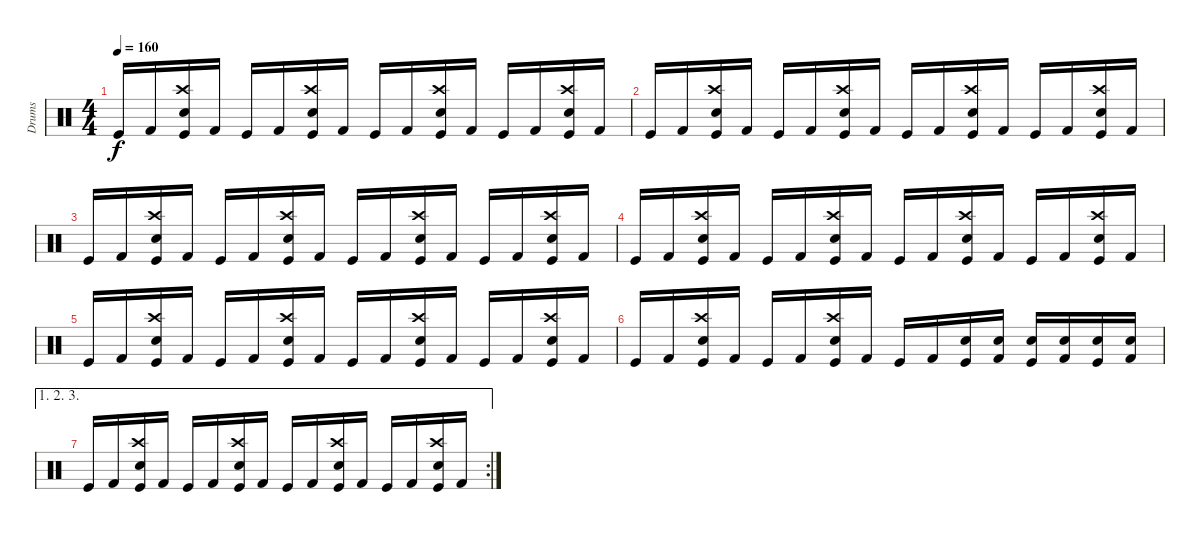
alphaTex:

\track ("Drums" "Drums") {instrument percussion}
\staff {score}
\articulation defaults
\ts (4 4)
\tempo 160
\clef neutral
\ks c "Kick (hit)".16{dy f} "Kick (hit) 2".16
("Crash high (hit)" "Snare (hit) 2" "Kick (hit)").16 "Kick (hit) 2".16 "Kick (hit)".16 "Kick (hit) 2".16 ("Crash high (hit)" "Snare (hit) 2" "Kick (hit)").16 "Kick (hit) 2".16 "Kick (hit)".16 "Kick (hit) 2".16 ("Crash high (hit)" "Snare (hit) 2" "Kick (hit)").16 "Kick (hit) 2".16 "Kick (hit)".16 "Kick (hit) 2".16 ("Crash high (hit)" "Snare (hit) 2" "Kick (hit)").16 "Kick (hit) 2".16 |
"Kick (hit)".16 "Kick (hit) 2".16 ("Crash high (hit)" "Snare (hit) 2" "Kick (hit)").16 "Kick (hit) 2".16 "Kick (hit)".16 "Kick (hit) 2".16 ("Crash high (hit)" "Snare (hit) 2" "Kick (hit)").16 "Kick (hit) 2".16 "Kick (hit)".16 "Kick (hit) 2".16 ("Crash high (hit)" "Snare (hit) 2" "Kick (hit)").16 "Kick (hit) 2".16 "Kick (hit)".16 "Kick (hit) 2".16 ("Crash high (hit)" "Snare (hit) 2" "Kick (hit)").16 "Kick (hit) 2".16 |
"Kick (hit)".16 "Kick (hit) 2".16 ("Crash high (hit)" "Snare (hit) 2" "Kick (hit)").16 "Kick (hit) 2".16 "Kick (hit)".16 "Kick (hit) 2".16 ("Crash high (hit)" "Snare (hit) 2" "Kick (hit)").16 "Kick (hit) 2".16 "Kick (hit)".16 "Kick (hit) 2".16 ("Crash high (hit)" "Snare (hit) 2" "Kick (hit)").16 "Kick (hit) 2".16 "Kick (hit)".16 "Kick (hit) 2".16 ("Crash high (hit)" "Snare (hit) 2" "Kick (hit)").16 "Kick (hit) 2".16 |
"Kick (hit)".16 "Kick (hit) 2".16 ("Crash high (hit)" "Snare (hit) 2" "Kick (hit)").16 "Kick (hit) 2".16 "Kick (hit)".16 "Kick (hit) 2".16 ("Crash high (hit)" "Snare (hit) 2" "Kick (hit)").16 "Kick (hit) 2".16 "Kick (hit)".16 "Kick (hit) 2".16 ("Crash high (hit)" "Snare (hit) 2" "Kick (hit)").16 "Kick (hit) 2".16 "Kick (hit)".16 "Kick (hit) 2".16 ("Crash high (hit)" "Snare (hit) 2" "Kick (hit)").16 "Kick (hit) 2".16 |
"Kick (hit)".16 "Kick (hit) 2".16 ("Crash high (hit)" "Snare (hit) 2" "Kick (hit)").16 "Kick (hit) 2".16 "Kick (hit)".16 "Kick (hit) 2".16 ("Crash high (hit)" "Snare (hit) 2" "Kick (hit)").16 "Kick (hit) 2".16 "Kick (hit)".16 "Kick (hit) 2".16 ("Crash high (hit)" "Snare (hit) 2" "Kick (hit)").16 "Kick (hit) 2".16 "Kick (hit)".16 "Kick (hit) 2".16 ("Crash high (hit)" "Snare (hit) 2" "Kick (hit)").16 "Kick (hit) 2".16 |
"Kick (hit)".16 "Kick (hit) 2".16 ("Crash high (hit)" "Snare (hit) 2" "Kick (hit)").16 "Kick (hit) 2".16 "Kick (hit)".16 "Kick (hit) 2".16 ("Crash high (hit)" "Snare (hit) 2" "Kick (hit)").16 "Kick (hit) 2".16 "Kick (hit)".16 "Kick (hit) 2".16 ("Snare (hit) 2" "Kick (hit)").16 ("Snare (hit) 2" "Kick (hit) 2").16 ("Snare (hit) 2" "Kick (hit)").16 ("Snare (hit) 2" "Kick (hit) 2").16 ("Snare (hit) 2" "Kick (hit)").16 ("Snare (hit) 2" "Kick (hit) 2").16 |
\ae (1 2 3)
\rc 2 "Kick (hit)".16 "Kick (hit) 2".16
("Crash high (hit)" "Snare (hit) 2" "Kick (hit)").16 "Kick (hit) 2".16 "Kick (hit)".16 "Kick (hit) 2".16 ("Crash high (hit)" "Snare (hit) 2" "Kick (hit)").16 "Kick (hit) 2".16 "Kick (hit)".16 "Kick (hit) 2".16 ("Crash high (hit)" "Snare (hit) 2" "Kick (hit)").16 "Kick (hit) 2".16 "Kick (hit)".16 "Kick (hit) 2".16 ("Crash high (hit)" "Snare (hit) 2" "Kick (hit)").16 "Kick (hit) 2".16
